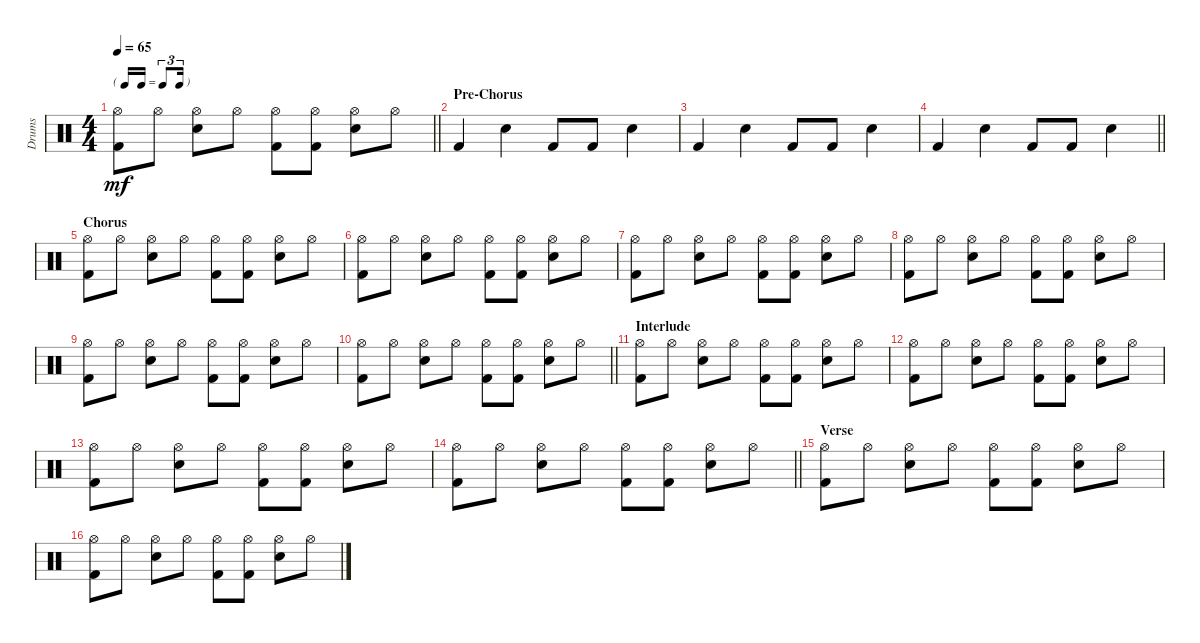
\track ("Drums" "Drums") {instrument percussion}
\staff {score}
\articulation defaults
\ts (4 4)
\tf triplet16th
\tempo 65
\clef neutral
\barLineRight lightlight
\ks aminor
("Hi-Hat (open)" "Kick (hit) 2").8{dy mf} "Hi-Hat (open)".8 ("Hi-Hat (open)" "Snare (hit) 2").8 "Hi-Hat (open)".8 ("Hi-Hat (open)" "Kick (hit) 2").8 ("Hi-Hat (open)" "Kick (hit) 2").8 ("Hi-Hat (open)" "Snare (hit) 2").8 "Hi-Hat (open)".8 |
\section ("" "Pre-Chorus")
"Kick (hit) 2".4 "Snare (hit) 2".4 "Kick (hit) 2".8 "Kick (hit) 2".8 "Snare (hit) 2".4 |
"Kick (hit) 2".4 "Snare (hit) 2".4 "Kick (hit) 2".8 "Kick (hit) 2".8 "Snare (hit) 2".4 |
\barLineRight lightlight "Kick (hit) 2".4 "Snare (hit) 2".4 "Kick (hit) 2".8 "Kick (hit) 2".8 "Snare (hit) 2".4
|
\section ("" "Chorus")
("Hi-Hat (open)" "Kick (hit) 2").8 "Hi-Hat (open)".8 ("Hi-Hat (open)" "Snare (hit) 2").8 "Hi-Hat (open)".8 ("Hi-Hat (open)" "Kick (hit) 2").8 ("Hi-Hat (open)" "Kick (hit) 2").8 ("Hi-Hat (open)" "Snare (hit) 2").8 "Hi-Hat (open)".8 |
("Hi-Hat (open)" "Kick (hit) 2").8 "Hi-Hat (open)".8 ("Hi-Hat (open)" "Snare (hit) 2").8 "Hi-Hat (open)".8 ("Hi-Hat (open)" "Kick (hit) 2").8 ("Hi-Hat (open)" "Kick (hit) 2").8 ("Hi-Hat (open)" "Snare (hit) 2").8 "Hi-Hat (open)".8 |
("Hi-Hat (open)" "Kick (hit) 2").8 "Hi-Hat (open)".8 ("Hi-Hat (open)" "Snare (hit) 2").8 "Hi-Hat (open)".8 ("Hi-Hat (open)" "Kick (hit) 2").8 ("Hi-Hat (open)" "Kick (hit) 2").8 ("Hi-Hat (open)" "Snare (hit) 2").8 "Hi-Hat (open)".8 |
("Hi-Hat (open)" "Kick (hit) 2").8 "Hi-Hat (open)".8 ("Hi-Hat (open)" "Snare (hit) 2").8 "Hi-Hat (open)".8 ("Hi-Hat (open)" "Kick (hit) 2").8 ("Hi-Hat (open)" "Kick (hit) 2").8 ("Hi-Hat (open)" "Snare (hit) 2").8 "Hi-Hat (open)".8 |
("Hi-Hat (open)" "Kick (hit) 2").8 "Hi-Hat (open)".8 ("Hi-Hat (open)" "Snare (hit) 2").8 "Hi-Hat (open)".8 ("Hi-Hat (open)" "Kick (hit) 2").8 ("Hi-Hat (open)" "Kick (hit) 2").8 ("Hi-Hat (open)" "Snare (hit) 2").8 "Hi-Hat (open)".8 |
\barLineRight lightlight
("Hi-Hat (open)" "Kick (hit) 2").8 "Hi-Hat (open)".8 ("Hi-Hat (open)" "Snare (hit) 2").8 "Hi-Hat (open)".8 ("Hi-Hat (open)" "Kick (hit) 2").8 ("Hi-Hat (open)" "Kick (hit) 2").8 ("Hi-Hat (open)" "Snare (hit) 2").8 "Hi-Hat (open)".8 |
\section ("" "Interlude")
("Hi-Hat (open)" "Kick (hit) 2").8 "Hi-Hat (open)".8 ("Hi-Hat (open)" "Snare (hit) 2").8 "Hi-Hat (open)".8 ("Hi-Hat (open)" "Kick (hit) 2").8 ("Hi-Hat (open)" "Kick (hit) 2").8 ("Hi-Hat (open)" "Snare (hit) 2").8 "Hi-Hat (open)".8 |
("Hi-Hat (open)" "Kick (hit) 2").8 "Hi-Hat (open)".8 ("Hi-Hat (open)" "Snare (hit) 2").8 "Hi-Hat (open)".8 ("Hi-Hat (open)" "Kick (hit) 2").8 ("Hi-Hat (open)" "Kick (hit) 2").8 ("Hi-Hat (open)" "Snare (hit) 2").8 "Hi-Hat (open)".8 |
("Hi-Hat (open)" "Kick (hit) 2").8 "Hi-Hat (open)".8 ("Hi-Hat (open)" "Snare (hit) 2").8 "Hi-Hat (open)".8 ("Hi-Hat (open)" "Kick (hit) 2").8 ("Hi-Hat (open)" "Kick (hit) 2").8 ("Hi-Hat (open)" "Snare (hit) 2").8 "Hi-Hat (open)".8 |
\barLineRight lightlight
("Hi-Hat (open)" "Kick (hit) 2").8 "Hi-Hat (open)".8 ("Hi-Hat (open)" "Snare (hit) 2").8 "Hi-Hat (open)".8 ("Hi-Hat (open)" "Kick (hit) 2").8 ("Hi-Hat (open)" "Kick (hit) 2").8 ("Hi-Hat (open)" "Snare (hit) 2").8 "Hi-Hat (open)".8 |
\section ("" "Verse")
("Hi-Hat (open)" "Kick (hit) 2").8 "Hi-Hat (open)".8 ("Hi-Hat (open)" "Snare (hit) 2").8 "Hi-Hat (open)".8 ("Hi-Hat (open)" "Kick (hit) 2").8 ("Hi-Hat (open)" "Kick (hit) 2").8 ("Hi-Hat (open)" "Snare (hit) 2").8 "Hi-Hat (open)".8 |
("Hi-Hat (open)" "Kick (hit) 2").8 "Hi-Hat (open)".8 ("Hi-Hat (open)" "Snare (hit) 2").8 "Hi-Hat (open)".8 ("Hi-Hat (open)" "Kick (hit) 2").8 ("Hi-Hat (open)" "Kick (hit) 2").8 ("Hi-Hat (open)" "Snare (hit) 2").8 "Hi-Hat (open)".8
